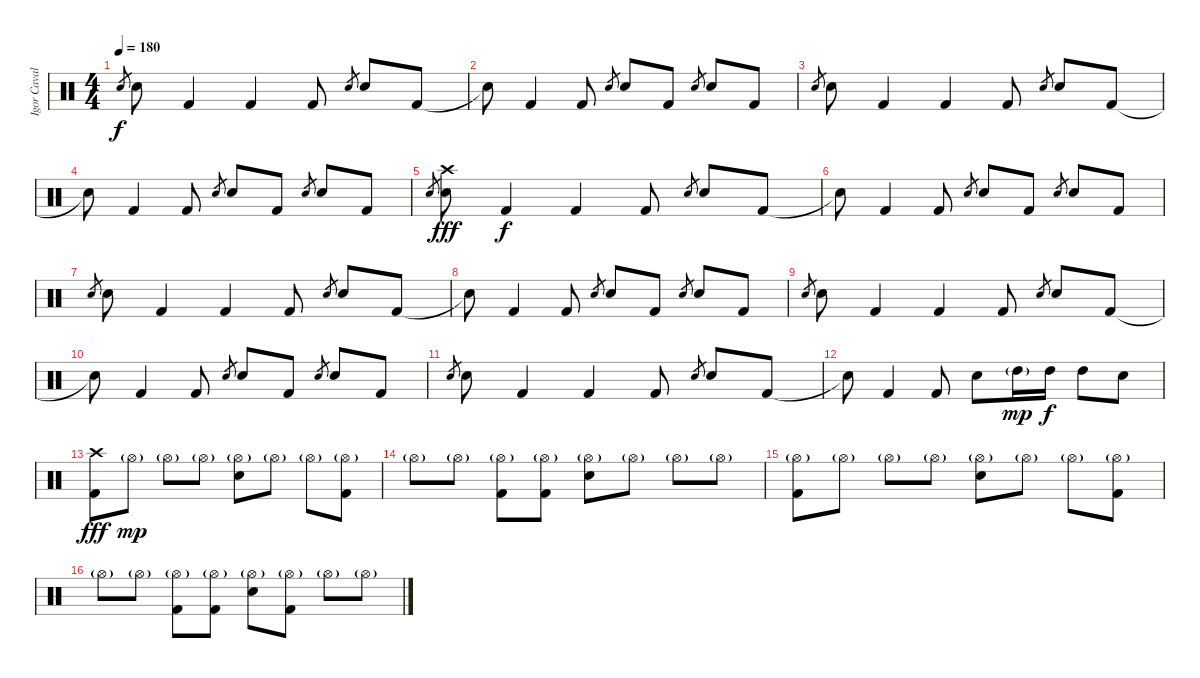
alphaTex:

\track ("Igor Cavalera" "Igor Caval") {instrument percussion}
\staff {score}
\articulation defaults
\ts (4 4)
\tempo 180
\clef neutral
\ks c "Electric Snare (hit)".8{gr dy f} "Electric Snare (hit)".8 "Kick (hit) 2".4 "Kick (hit) 2".4 "Kick (hit) 2".8 "Electric Snare (hit)".8{gr} "Electric Snare (hit)".8 "Kick (hit) 2".8
|
"Snare (hit)"{t}.8 "Kick (hit) 2".4 "Kick (hit) 2".8 "Electric Snare (hit)".8{gr} "Electric Snare (hit)".8 "Kick (hit) 2".8 "Electric Snare (hit)".8{gr} "Electric Snare (hit)".8 "Kick (hit) 2".8 |
"Electric Snare (hit)".8{gr} "Electric Snare (hit)".8 "Kick (hit) 2".4 "Kick (hit) 2".4 "Kick (hit) 2".8 "Electric Snare (hit)".8{gr} "Electric Snare (hit)".8 "Kick (hit) 2".8 |
"Snare (hit)"{t}.8 "Kick (hit) 2".4 "Kick (hit) 2".8 "Electric Snare (hit)".8{gr} "Electric Snare (hit)".8 "Kick (hit) 2".8 "Electric Snare (hit)".8{gr} "Electric Snare (hit)".8 "Kick (hit) 2".8 |
"Electric Snare (hit)".8{gr} ("Crash high (hit)" "Electric Snare (hit)").8{dy fff} "Kick (hit) 2".4{dy f} "Kick (hit) 2".4 "Kick (hit) 2".8 "Electric Snare (hit)".8{gr} "Electric Snare (hit)".8 "Kick (hit) 2".8 |
"Snare (hit)"{t}.8 "Kick (hit) 2".4 "Kick (hit) 2".8 "Electric Snare (hit)".8{gr} "Electric Snare (hit)".8 "Kick (hit) 2".8 "Electric Snare (hit)".8{gr} "Electric Snare (hit)".8 "Kick (hit) 2".8 |
"Electric Snare (hit)".8{gr} "Electric Snare (hit)".8 "Kick (hit) 2".4 "Kick (hit) 2".4 "Kick (hit) 2".8 "Electric Snare (hit)".8{gr} "Electric Snare (hit)".8 "Kick (hit) 2".8 |
"Snare (hit)"{t}.8 "Kick (hit) 2".4 "Kick (hit) 2".8 "Electric Snare (hit)".8{gr} "Electric Snare (hit)".8 "Kick (hit) 2".8 "Electric Snare (hit)".8{gr} "Electric Snare (hit)".8 "Kick (hit) 2".8 |
"Electric Snare (hit)".8{gr} "Electric Snare (hit)".8 "Kick (hit) 2".4 "Kick (hit) 2".4 "Kick (hit) 2".8 "Electric Snare (hit)".8{gr} "Electric Snare (hit)".8 "Kick (hit) 2".8 |
"Snare (hit)"{t}.8 "Kick (hit) 2".4 "Kick (hit) 2".8 "Electric Snare (hit)".8{gr} "Electric Snare (hit)".8 "Kick (hit) 2".8 "Electric Snare (hit)".8{gr} "Electric Snare (hit)".8 "Kick (hit) 2".8 |
"Electric Snare (hit)".8{gr} "Electric Snare (hit)".8 "Kick (hit) 2".4 "Kick (hit) 2".4 "Kick (hit) 2".8 "Electric Snare (hit)".8{gr} "Electric Snare (hit)".8 "Kick (hit) 2".8 |
"Snare (hit)"{t}.8 "Kick (hit) 2".4 "Kick (hit) 2".8 "Electric Snare (hit)".8 "High Tom (hit)"{g}.16{dy mp} "High Tom (hit)".16{dy f} "High Tom (hit)".8 "Electric Snare (hit)".8 |
("Crash high (hit)" "Kick (hit) 2").8{dy fff} "Hi-Hat (open)"{g}.8{dy mp} "Hi-Hat (open)"{g}.8 "Hi-Hat (open)"{g}.8 ("Hi-Hat (open)"{g} "Electric Snare (hit)").8 "Hi-Hat (open)"{g}.8 "Hi-Hat (open)"{g}.8 ("Hi-Hat (open)"{g} "Kick (hit) 2").8 |
"Hi-Hat (open)"{g}.8 "Hi-Hat (open)"{g}.8 ("Hi-Hat (open)"{g} "Kick (hit) 2").8 ("Hi-Hat (open)"{g} "Kick (hit) 2").8 ("Hi-Hat (open)"{g} "Electric Snare (hit)").8 "Hi-Hat (open)"{g}.8 "Hi-Hat (open)"{g}.8 "Hi-Hat (open)"{g}.8 |
("Hi-Hat (open)"{g} "Kick (hit) 2").8 "Hi-Hat (open)"{g}.8 "Hi-Hat (open)"{g}.8 "Hi-Hat (open)"{g}.8 ("Hi-Hat (open)"{g} "Electric Snare (hit)").8 "Hi-Hat (open)"{g}.8 "Hi-Hat (open)"{g}.8 ("Hi-Hat (open)"{g} "Kick (hit) 2").8 |
"Hi-Hat (open)"{g}.8 "Hi-Hat (open)"{g}.8 ("Hi-Hat (open)"{g} "Kick (hit) 2").8 ("Hi-Hat (open)"{g} "Kick (hit) 2").8 ("Hi-Hat (open)"{g} "Electric Snare (hit)").8 ("Hi-Hat (open)"{g} "Kick (hit) 2").8 "Hi-Hat (open)"{g}.8 "Hi-Hat (open)"{g}.8
